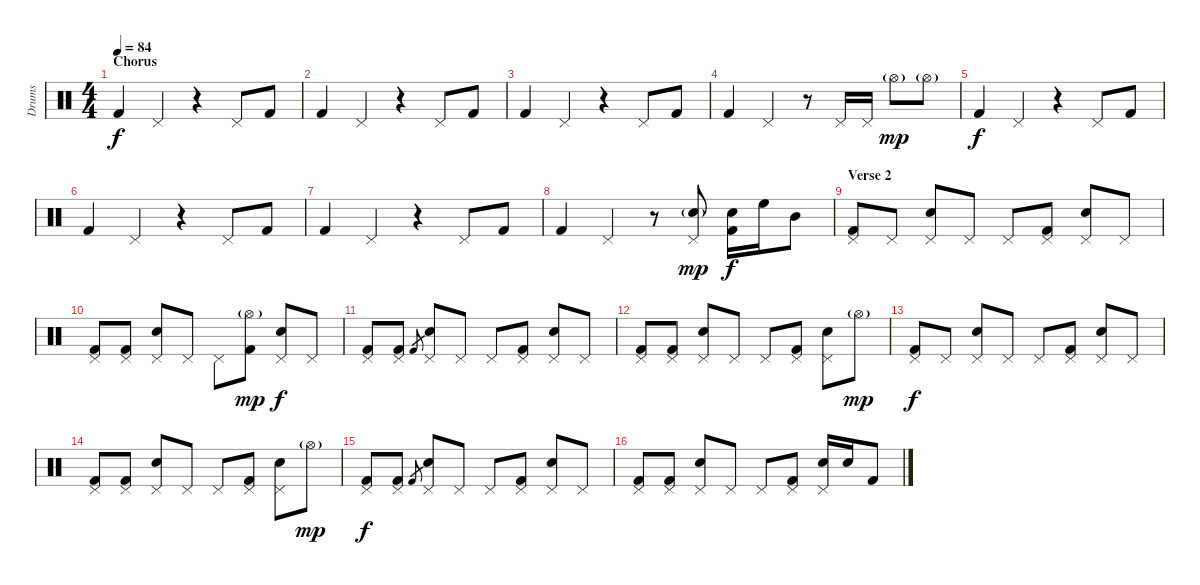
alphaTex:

\track ("Drums" "Drums") {instrument percussion}
\staff {score}
\articulation defaults
\ts (4 4)
\section ("" "Chorus")
\tempo 84
\clef neutral
\ks c "Kick (hit) 2".4{dy f} "Pedal Hi-Hat (hit)".4
r.4 "Pedal Hi-Hat (hit)".8 "Kick (hit) 2".8 |
"Kick (hit) 2".4 "Pedal Hi-Hat (hit)".4 r.4 "Pedal Hi-Hat (hit)".8 "Kick (hit) 2".8 |
"Kick (hit) 2".4 "Pedal Hi-Hat (hit)".4 r.4 "Pedal Hi-Hat (hit)".8 "Kick (hit) 2".8 |
"Kick (hit) 2".4 "Pedal Hi-Hat (hit)".4 r.8 "Pedal Hi-Hat (hit)".16 "Pedal Hi-Hat (hit)".16 "Hi-Hat (open)"{g}.8{dy mp} "Hi-Hat (open)"{g}.8 |
"Kick (hit) 2".4{dy f} "Pedal Hi-Hat (hit)".4 r.4 "Pedal Hi-Hat (hit)".8 "Kick (hit) 2".8 |
"Kick (hit) 2".4 "Pedal Hi-Hat (hit)".4 r.4 "Pedal Hi-Hat (hit)".8 "Kick (hit) 2".8 |
"Kick (hit) 2".4 "Pedal Hi-Hat (hit)".4 r.4 "Pedal Hi-Hat (hit)".8 "Kick (hit) 2".8 |
"Kick (hit) 2".4 "Pedal Hi-Hat (hit)".4 r.8 ("Pedal Hi-Hat (hit)" "Electric Snare (hit)"{g}).8{dy mp} ("Electric Snare (hit)" "Kick (hit) 2").16{dy f} "High Floor Tom (hit)".16 "Mid Tom (hit)".8 |
\section ("" "Verse 2")
("Pedal Hi-Hat (hit)" "Kick (hit) 2").8 "Pedal Hi-Hat (hit)".8 ("Pedal Hi-Hat (hit)" "Electric Snare (hit)").8 "Pedal Hi-Hat (hit)".8 "Pedal Hi-Hat (hit)".8 ("Pedal Hi-Hat (hit)" "Kick (hit) 2").8 ("Pedal Hi-Hat (hit)" "Electric Snare (hit)").8 "Pedal Hi-Hat (hit)".8 |
("Pedal Hi-Hat (hit)" "Kick (hit) 2").8 ("Pedal Hi-Hat (hit)" "Kick (hit) 2").8 ("Pedal Hi-Hat (hit)" "Electric Snare (hit)").8 "Pedal Hi-Hat (hit)".8 "Pedal Hi-Hat (hit)".8 ("Hi-Hat (open)"{g} "Kick (hit) 2").8{dy mp} ("Pedal Hi-Hat (hit)" "Electric Snare (hit)").8{dy f} "Pedal Hi-Hat (hit)".8 |
("Pedal Hi-Hat (hit)" "Kick (hit) 2").8 ("Pedal Hi-Hat (hit)" "Kick (hit) 2").8 "Kick (hit) 2".8{gr} ("Pedal Hi-Hat (hit)" "Electric Snare (hit)").8 "Pedal Hi-Hat (hit)".8 "Pedal Hi-Hat (hit)".8 ("Pedal Hi-Hat (hit)" "Kick (hit) 2").8 ("Pedal Hi-Hat (hit)" "Electric Snare (hit)").8 "Pedal Hi-Hat (hit)".8 |
("Pedal Hi-Hat (hit)" "Kick (hit) 2").8 ("Pedal Hi-Hat (hit)" "Kick (hit) 2").8 ("Pedal Hi-Hat (hit)" "Electric Snare (hit)").8 "Pedal Hi-Hat (hit)".8 "Pedal Hi-Hat (hit)".8 ("Pedal Hi-Hat (hit)" "Kick (hit) 2").8 ("Pedal Hi-Hat (hit)" "Electric Snare (hit)").8 "Hi-Hat (open)"{g}.8{dy mp} |
("Pedal Hi-Hat (hit)" "Kick (hit) 2").8{dy f} "Pedal Hi-Hat (hit)".8 ("Pedal Hi-Hat (hit)" "Electric Snare (hit)").8 "Pedal Hi-Hat (hit)".8 "Pedal Hi-Hat (hit)".8 ("Pedal Hi-Hat (hit)" "Kick (hit) 2").8 ("Pedal Hi-Hat (hit)" "Electric Snare (hit)").8 "Pedal Hi-Hat (hit)".8 |
("Pedal Hi-Hat (hit)" "Kick (hit) 2").8 ("Pedal Hi-Hat (hit)" "Kick (hit) 2").8 ("Pedal Hi-Hat (hit)" "Electric Snare (hit)").8 "Pedal Hi-Hat (hit)".8 "Pedal Hi-Hat (hit)".8 ("Pedal Hi-Hat (hit)" "Kick (hit) 2").8 ("Pedal Hi-Hat (hit)" "Electric Snare (hit)").8 "Hi-Hat (open)"{g}.8{dy mp} |
("Pedal Hi-Hat (hit)" "Kick (hit) 2").8{dy f} ("Pedal Hi-Hat (hit)" "Kick (hit) 2").8 "Kick (hit) 2".8{gr} ("Pedal Hi-Hat (hit)" "Electric Snare (hit)").8 "Pedal Hi-Hat (hit)".8 "Pedal Hi-Hat (hit)".8 ("Pedal Hi-Hat (hit)" "Kick (hit) 2").8 ("Pedal Hi-Hat (hit)" "Electric Snare (hit)").8 "Pedal Hi-Hat (hit)".8 |
("Pedal Hi-Hat (hit)" "Kick (hit) 2").8 ("Pedal Hi-Hat (hit)" "Kick (hit) 2").8 ("Pedal Hi-Hat (hit)" "Electric Snare (hit)").8 "Pedal Hi-Hat (hit)".8 "Pedal Hi-Hat (hit)".8 ("Pedal Hi-Hat (hit)" "Kick (hit) 2").8 ("Pedal Hi-Hat (hit)" "Electric Snare (hit)").16 "Electric Snare (hit)".16 "Kick (hit) 2".8
